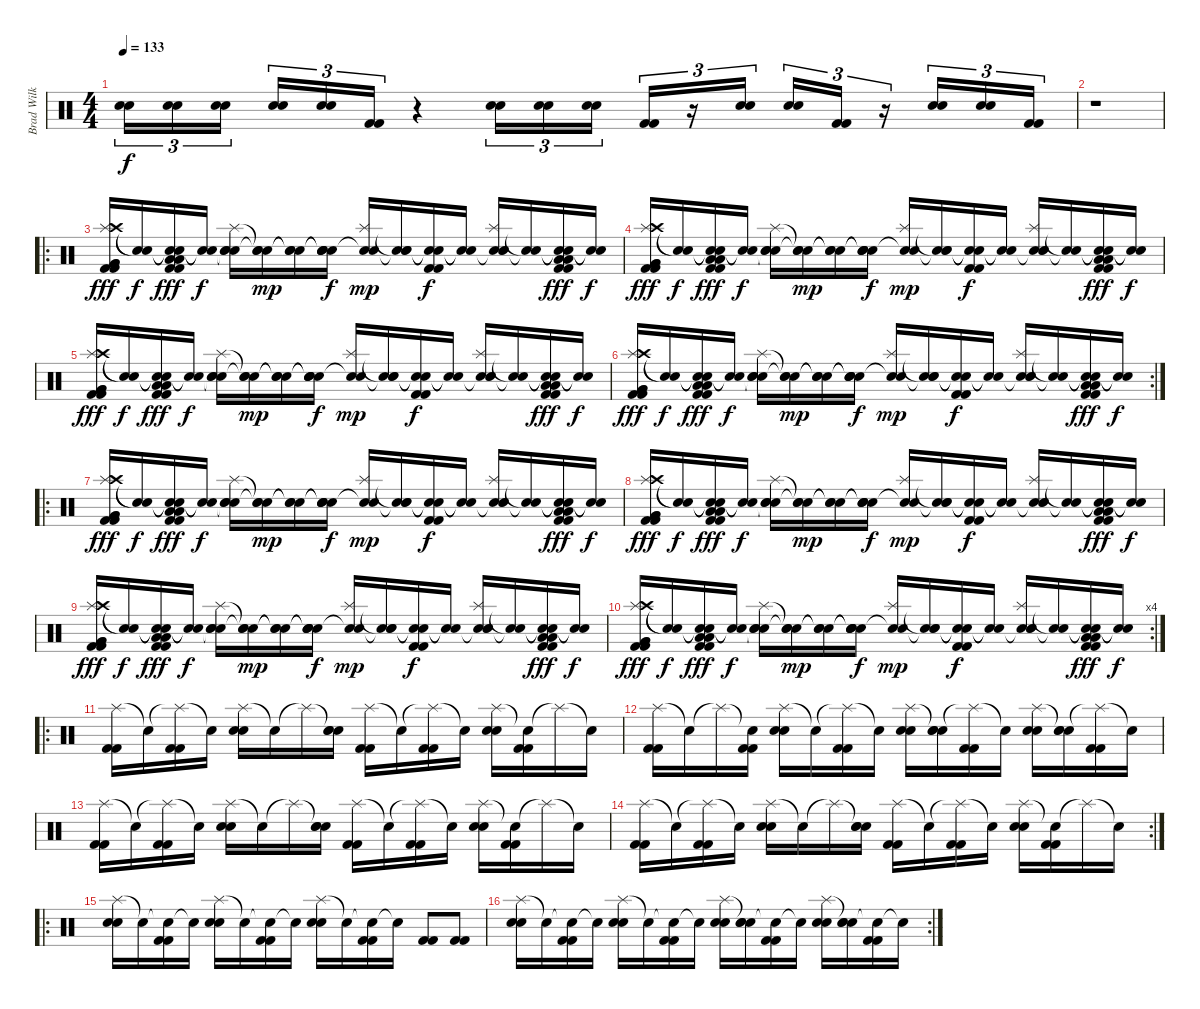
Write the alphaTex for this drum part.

\track ("Brad Wilk" "Brad Wilk") {instrument percussion}
\staff {score}
\articulation defaults
\ts (4 4)
\tempo 133
\clef neutral
\ks c
("Electric Snare (hit)" "Electric Snare (hit)").16{tu (3 2) dy f} ("Electric Snare (hit)" "Electric Snare (hit)").16{tu (3 2)} ("Electric Snare (hit)" "Electric Snare (hit)").16{tu (3 2)} ("Electric Snare (hit)" "Electric Snare (hit)").16{tu (3 2)} ("Electric Snare (hit)" "Electric Snare (hit)").16{tu (3 2)} ("Kick (hit) 2" "Kick (hit) 2").16{tu (3 2)} r.4 ("Electric Snare (hit)" "Electric Snare (hit)").16{tu (3 2)} ("Electric Snare (hit)" "Electric Snare (hit)").16{tu (3 2)} ("Electric Snare (hit)" "Electric Snare (hit)").16{tu (3 2)} ("Kick (hit) 2" "Kick (hit) 2").16{tu (3 2)} r.16{tu (3 2)} ("Electric Snare (hit)" "Electric Snare (hit)").16{tu (3 2)} ("Electric Snare (hit)" "Electric Snare (hit)").16{tu (3 2)} ("Kick (hit) 2" "Kick (hit) 2").16{tu (3 2)} r.16{tu (3 2)} ("Electric Snare (hit)" "Electric Snare (hit)").16{tu (3 2)} ("Electric Snare (hit)" "Electric Snare (hit)").16{tu (3 2)} ("Kick (hit) 2" "Kick (hit) 2").16{tu (3 2)} |
r.1 |
\ro
("Splash (hit)" "Crash high (hit)" "Kick (hit) 2" "Kick (hit) 2" "Very Low Tom (hit)" "Very Low Tom (hit)").16{dy fff} ("Snare (hit)"{t} "Snare (hit)"{t}).16{dy f} ("Snare (hit)"{t} "Snare (hit)"{t} "Kick (hit) 2" "Kick (hit) 2" "Low Floor Tom (hit)" "Low Floor Tom (hit)").16{dy fff} ("Snare (hit)"{t} "Snare (hit)"{t}).16{dy f} ("Splash (hit)" "Snare (hit)"{t} "Electric Snare (hit)" "Electric Snare (hit)").16 ("Snare (hit)"{t} "Snare (hit)"{t} "Electric Snare (hit)").16{dy mp} ("Snare (hit)"{t} "Snare (hit)"{t} "Electric Snare (hit)").16 ("Snare (hit)"{t} "Snare (hit)"{t} "Electric Snare (hit)" "Electric Snare (hit)").16{dy f} ("Splash (hit)" "Snare (hit)"{t} "Electric Snare (hit)").16{dy mp} ("Snare (hit)"{t} "Snare (hit)"{t} "Electric Snare (hit)").16 ("Snare (hit)"{t} "Snare (hit)"{t} "Kick (hit) 2" "Kick (hit) 2").16{dy f} ("Snare (hit)"{t} "Snare (hit)"{t}).16 ("Splash (hit)" "Snare (hit)"{t} "Electric Snare (hit)" "Electric Snare (hit)").16 ("Snare (hit)"{t} "Snare (hit)"{t}).16 ("Snare (hit)"{t} "Snare (hit)"{t} "Kick (hit) 2" "Kick (hit) 2" "Low Tom (hit)" "Low Tom (hit)").16{dy fff} ("Snare (hit)"{t} "Snare (hit)"{t}).16{dy f} |
("Splash (hit)" "Crash high (hit)" "Kick (hit) 2" "Kick (hit) 2" "Very Low Tom (hit)" "Very Low Tom (hit)").16{dy fff} ("Snare (hit)"{t} "Snare (hit)"{t}).16{dy f} ("Snare (hit)"{t} "Snare (hit)"{t} "Kick (hit) 2" "Kick (hit) 2" "Low Floor Tom (hit)" "Low Floor Tom (hit)").16{dy fff} ("Snare (hit)"{t} "Snare (hit)"{t}).16{dy f} ("Splash (hit)" "Snare (hit)"{t} "Electric Snare (hit)" "Electric Snare (hit)").16 ("Snare (hit)"{t} "Snare (hit)"{t} "Electric Snare (hit)").16{dy mp} ("Snare (hit)"{t} "Snare (hit)"{t} "Electric Snare (hit)").16 ("Snare (hit)"{t} "Snare (hit)"{t} "Electric Snare (hit)" "Electric Snare (hit)").16{dy f} ("Splash (hit)" "Snare (hit)"{t} "Electric Snare (hit)").16{dy mp} ("Snare (hit)"{t} "Snare (hit)"{t} "Electric Snare (hit)").16 ("Snare (hit)"{t} "Snare (hit)"{t} "Kick (hit) 2" "Kick (hit) 2").16{dy f} ("Snare (hit)"{t} "Snare (hit)"{t}).16 ("Splash (hit)" "Snare (hit)"{t} "Electric Snare (hit)" "Electric Snare (hit)").16 ("Snare (hit)"{t} "Snare (hit)"{t}).16 ("Snare (hit)"{t} "Snare (hit)"{t} "Kick (hit) 2" "Kick (hit) 2" "Low Tom (hit)" "Low Tom (hit)").16{dy fff} ("Snare (hit)"{t} "Snare (hit)"{t}).16{dy f} |
("Splash (hit)" "Crash high (hit)" "Kick (hit) 2" "Kick (hit) 2" "Very Low Tom (hit)" "Very Low Tom (hit)").16{dy fff} ("Snare (hit)"{t} "Snare (hit)"{t}).16{dy f} ("Snare (hit)"{t} "Snare (hit)"{t} "Kick (hit) 2" "Kick (hit) 2" "Low Floor Tom (hit)" "Low Floor Tom (hit)").16{dy fff} ("Snare (hit)"{t} "Snare (hit)"{t}).16{dy f} ("Splash (hit)" "Snare (hit)"{t} "Electric Snare (hit)" "Electric Snare (hit)").16 ("Snare (hit)"{t} "Snare (hit)"{t} "Electric Snare (hit)").16{dy mp} ("Snare (hit)"{t} "Snare (hit)"{t} "Electric Snare (hit)").16 ("Snare (hit)"{t} "Snare (hit)"{t} "Electric Snare (hit)" "Electric Snare (hit)").16{dy f} ("Splash (hit)" "Snare (hit)"{t} "Electric Snare (hit)").16{dy mp} ("Snare (hit)"{t} "Snare (hit)"{t} "Electric Snare (hit)").16 ("Snare (hit)"{t} "Snare (hit)"{t} "Kick (hit) 2" "Kick (hit) 2").16{dy f} ("Snare (hit)"{t} "Snare (hit)"{t}).16 ("Splash (hit)" "Snare (hit)"{t} "Electric Snare (hit)" "Electric Snare (hit)").16 ("Snare (hit)"{t} "Snare (hit)"{t}).16 ("Snare (hit)"{t} "Snare (hit)"{t} "Kick (hit) 2" "Kick (hit) 2" "Low Tom (hit)" "Low Tom (hit)").16{dy fff} ("Snare (hit)"{t} "Snare (hit)"{t}).16{dy f} |
\rc 2
("Splash (hit)" "Crash high (hit)" "Kick (hit) 2" "Kick (hit) 2" "Very Low Tom (hit)" "Very Low Tom (hit)").16{dy fff} ("Snare (hit)"{t} "Snare (hit)"{t}).16{dy f} ("Snare (hit)"{t} "Snare (hit)"{t} "Kick (hit) 2" "Kick (hit) 2" "Low Floor Tom (hit)" "Low Floor Tom (hit)").16{dy fff} ("Snare (hit)"{t} "Snare (hit)"{t}).16{dy f} ("Splash (hit)" "Snare (hit)"{t} "Electric Snare (hit)" "Electric Snare (hit)").16 ("Snare (hit)"{t} "Snare (hit)"{t} "Electric Snare (hit)").16{dy mp} ("Snare (hit)"{t} "Snare (hit)"{t} "Electric Snare (hit)").16 ("Snare (hit)"{t} "Snare (hit)"{t} "Electric Snare (hit)" "Electric Snare (hit)").16{dy f} ("Splash (hit)" "Snare (hit)"{t} "Electric Snare (hit)").16{dy mp} ("Snare (hit)"{t} "Snare (hit)"{t} "Electric Snare (hit)").16 ("Snare (hit)"{t} "Snare (hit)"{t} "Kick (hit) 2" "Kick (hit) 2").16{dy f} ("Snare (hit)"{t} "Snare (hit)"{t}).16 ("Splash (hit)" "Snare (hit)"{t} "Electric Snare (hit)" "Electric Snare (hit)").16 ("Snare (hit)"{t} "Snare (hit)"{t}).16 ("Snare (hit)"{t} "Snare (hit)"{t} "Kick (hit) 2" "Kick (hit) 2" "Low Tom (hit)" "Low Tom (hit)").16{dy fff} ("Snare (hit)"{t} "Snare (hit)"{t}).16{dy f} |
\ro
("Splash (hit)" "Crash high (hit)" "Kick (hit) 2" "Kick (hit) 2" "Very Low Tom (hit)" "Very Low Tom (hit)").16{dy fff} ("Snare (hit)"{t} "Snare (hit)"{t}).16{dy f} ("Snare (hit)"{t} "Snare (hit)"{t} "Kick (hit) 2" "Kick (hit) 2" "Low Floor Tom (hit)" "Low Floor Tom (hit)").16{dy fff} ("Snare (hit)"{t} "Snare (hit)"{t}).16{dy f} ("Splash (hit)" "Snare (hit)"{t} "Electric Snare (hit)" "Electric Snare (hit)").16 ("Snare (hit)"{t} "Snare (hit)"{t} "Electric Snare (hit)").16{dy mp} ("Snare (hit)"{t} "Snare (hit)"{t} "Electric Snare (hit)").16 ("Snare (hit)"{t} "Snare (hit)"{t} "Electric Snare (hit)" "Electric Snare (hit)").16{dy f} ("Splash (hit)" "Snare (hit)"{t} "Electric Snare (hit)").16{dy mp} ("Snare (hit)"{t} "Snare (hit)"{t} "Electric Snare (hit)").16 ("Snare (hit)"{t} "Snare (hit)"{t} "Kick (hit) 2" "Kick (hit) 2").16{dy f} ("Snare (hit)"{t} "Snare (hit)"{t}).16 ("Splash (hit)" "Snare (hit)"{t} "Electric Snare (hit)" "Electric Snare (hit)").16 ("Snare (hit)"{t} "Snare (hit)"{t}).16 ("Snare (hit)"{t} "Snare (hit)"{t} "Kick (hit) 2" "Kick (hit) 2" "Low Tom (hit)" "Low Tom (hit)").16{dy fff} ("Snare (hit)"{t} "Snare (hit)"{t}).16{dy f} |
("Splash (hit)" "Crash high (hit)" "Kick (hit) 2" "Kick (hit) 2" "Very Low Tom (hit)" "Very Low Tom (hit)").16{dy fff} ("Snare (hit)"{t} "Snare (hit)"{t}).16{dy f} ("Snare (hit)"{t} "Snare (hit)"{t} "Kick (hit) 2" "Kick (hit) 2" "Low Floor Tom (hit)" "Low Floor Tom (hit)").16{dy fff} ("Snare (hit)"{t} "Snare (hit)"{t}).16{dy f} ("Splash (hit)" "Snare (hit)"{t} "Electric Snare (hit)" "Electric Snare (hit)").16 ("Snare (hit)"{t} "Snare (hit)"{t} "Electric Snare (hit)").16{dy mp} ("Snare (hit)"{t} "Snare (hit)"{t} "Electric Snare (hit)").16 ("Snare (hit)"{t} "Snare (hit)"{t} "Electric Snare (hit)" "Electric Snare (hit)").16{dy f} ("Splash (hit)" "Snare (hit)"{t} "Electric Snare (hit)").16{dy mp} ("Snare (hit)"{t} "Snare (hit)"{t} "Electric Snare (hit)").16 ("Snare (hit)"{t} "Snare (hit)"{t} "Kick (hit) 2" "Kick (hit) 2").16{dy f} ("Snare (hit)"{t} "Snare (hit)"{t}).16 ("Splash (hit)" "Snare (hit)"{t} "Electric Snare (hit)" "Electric Snare (hit)").16 ("Snare (hit)"{t} "Snare (hit)"{t}).16 ("Snare (hit)"{t} "Snare (hit)"{t} "Kick (hit) 2" "Kick (hit) 2" "Low Tom (hit)" "Low Tom (hit)").16{dy fff} ("Snare (hit)"{t} "Snare (hit)"{t}).16{dy f} |
("Splash (hit)" "Crash high (hit)" "Kick (hit) 2" "Kick (hit) 2" "Very Low Tom (hit)" "Very Low Tom (hit)").16{dy fff} ("Snare (hit)"{t} "Snare (hit)"{t}).16{dy f} ("Snare (hit)"{t} "Snare (hit)"{t} "Kick (hit) 2" "Kick (hit) 2" "Low Floor Tom (hit)" "Low Floor Tom (hit)").16{dy fff} ("Snare (hit)"{t} "Snare (hit)"{t}).16{dy f} ("Splash (hit)" "Snare (hit)"{t} "Electric Snare (hit)" "Electric Snare (hit)").16 ("Snare (hit)"{t} "Snare (hit)"{t} "Electric Snare (hit)").16{dy mp} ("Snare (hit)"{t} "Snare (hit)"{t} "Electric Snare (hit)").16 ("Snare (hit)"{t} "Snare (hit)"{t} "Electric Snare (hit)" "Electric Snare (hit)").16{dy f} ("Splash (hit)" "Snare (hit)"{t} "Electric Snare (hit)").16{dy mp} ("Snare (hit)"{t} "Snare (hit)"{t} "Electric Snare (hit)").16 ("Snare (hit)"{t} "Snare (hit)"{t} "Kick (hit) 2" "Kick (hit) 2").16{dy f} ("Snare (hit)"{t} "Snare (hit)"{t}).16 ("Splash (hit)" "Snare (hit)"{t} "Electric Snare (hit)" "Electric Snare (hit)").16 ("Snare (hit)"{t} "Snare (hit)"{t}).16 ("Snare (hit)"{t} "Snare (hit)"{t} "Kick (hit) 2" "Kick (hit) 2" "Low Tom (hit)" "Low Tom (hit)").16{dy fff} ("Snare (hit)"{t} "Snare (hit)"{t}).16{dy f} |
\rc 4
("Splash (hit)" "Crash high (hit)" "Kick (hit) 2" "Kick (hit) 2" "Very Low Tom (hit)" "Very Low Tom (hit)").16{dy fff} ("Snare (hit)"{t} "Snare (hit)"{t}).16{dy f} ("Snare (hit)"{t} "Snare (hit)"{t} "Kick (hit) 2" "Kick (hit) 2" "Low Floor Tom (hit)" "Low Floor Tom (hit)").16{dy fff} ("Snare (hit)"{t} "Snare (hit)"{t}).16{dy f} ("Splash (hit)" "Snare (hit)"{t} "Electric Snare (hit)" "Electric Snare (hit)").16 ("Snare (hit)"{t} "Snare (hit)"{t} "Electric Snare (hit)").16{dy mp} ("Snare (hit)"{t} "Snare (hit)"{t} "Electric Snare (hit)").16 ("Snare (hit)"{t} "Snare (hit)"{t} "Electric Snare (hit)" "Electric Snare (hit)").16{dy f} ("Splash (hit)" "Snare (hit)"{t} "Electric Snare (hit)").16{dy mp} ("Snare (hit)"{t} "Snare (hit)"{t} "Electric Snare (hit)").16 ("Snare (hit)"{t} "Snare (hit)"{t} "Kick (hit) 2" "Kick (hit) 2").16{dy f} ("Snare (hit)"{t} "Snare (hit)"{t}).16 ("Splash (hit)" "Snare (hit)"{t} "Electric Snare (hit)" "Electric Snare (hit)").16 ("Snare (hit)"{t} "Snare (hit)"{t}).16 ("Snare (hit)"{t} "Snare (hit)"{t} "Kick (hit) 2" "Kick (hit) 2" "Low Tom (hit)" "Low Tom (hit)").16{dy fff} ("Snare (hit)"{t} "Snare (hit)"{t}).16{dy f} |
\ro
("Splash (hit)" "Kick (hit) 2" "Kick (hit) 2").16 "Snare (hit)"{t}.16 ("Splash (hit)"{t} "Kick (hit) 2" "Kick (hit) 2").16 "Snare (hit)"{t}.16 ("Splash (hit)" "Electric Snare (hit)" "Electric Snare (hit)").16 "Snare (hit)"{t}.16 "Splash (hit)"{t}.16 ("Snare (hit)"{t} "Electric Snare (hit)" "Electric Snare (hit)").16 ("Splash (hit)" "Kick (hit) 2" "Kick (hit) 2").16 "Snare (hit)"{t}.16 ("Splash (hit)"{t} "Kick (hit) 2" "Kick (hit) 2").16 "Snare (hit)"{t}.16 ("Splash (hit)" "Electric Snare (hit)" "Electric Snare (hit)").16 ("Snare (hit)"{t} "Kick (hit) 2" "Kick (hit) 2").16 "Splash (hit)"{t}.16 "Snare (hit)"{t}.16 |
("Splash (hit)" "Kick (hit) 2" "Kick (hit) 2").16 "Snare (hit)"{t}.16 "Splash (hit)"{t}.16 ("Snare (hit)"{t} "Kick (hit) 2" "Kick (hit) 2").16 ("Splash (hit)" "Electric Snare (hit)" "Electric Snare (hit)").16 "Snare (hit)"{t}.16 ("Splash (hit)"{t} "Kick (hit) 2" "Kick (hit) 2").16 "Snare (hit)"{t}.16 ("Splash (hit)" "Electric Snare (hit)" "Electric Snare (hit)").16 ("Snare (hit)"{t} "Electric Snare (hit)" "Electric Snare (hit)").16 ("Splash (hit)"{t} "Kick (hit) 2" "Kick (hit) 2").16 "Snare (hit)"{t}.16 ("Splash (hit)" "Electric Snare (hit)" "Electric Snare (hit)").16 ("Snare (hit)"{t} "Electric Snare (hit)" "Electric Snare (hit)").16 ("Splash (hit)"{t} "Kick (hit) 2" "Kick (hit) 2").16 "Snare (hit)"{t}.16 |
("Splash (hit)" "Kick (hit) 2" "Kick (hit) 2").16 "Snare (hit)"{t}.16 ("Splash (hit)"{t} "Kick (hit) 2" "Kick (hit) 2").16 "Snare (hit)"{t}.16 ("Splash (hit)" "Electric Snare (hit)" "Electric Snare (hit)").16 "Snare (hit)"{t}.16 "Splash (hit)"{t}.16 ("Snare (hit)"{t} "Electric Snare (hit)" "Electric Snare (hit)").16 ("Splash (hit)" "Kick (hit) 2" "Kick (hit) 2").16 "Snare (hit)"{t}.16 ("Splash (hit)"{t} "Kick (hit) 2" "Kick (hit) 2").16 "Snare (hit)"{t}.16 ("Splash (hit)" "Electric Snare (hit)" "Electric Snare (hit)").16 ("Snare (hit)"{t} "Kick (hit) 2" "Kick (hit) 2").16 "Splash (hit)"{t}.16 "Snare (hit)"{t}.16 |
\rc 2
("Splash (hit)" "Kick (hit) 2" "Kick (hit) 2").16 "Snare (hit)"{t}.16 ("Splash (hit)"{t} "Kick (hit) 2" "Kick (hit) 2").16 "Snare (hit)"{t}.16 ("Splash (hit)" "Electric Snare (hit)" "Electric Snare (hit)").16 "Snare (hit)"{t}.16 "Splash (hit)"{t}.16 ("Snare (hit)"{t} "Electric Snare (hit)" "Electric Snare (hit)").16 ("Splash (hit)" "Kick (hit) 2" "Kick (hit) 2").16 "Snare (hit)"{t}.16 ("Splash (hit)"{t} "Kick (hit) 2" "Kick (hit) 2").16 "Snare (hit)"{t}.16 ("Splash (hit)" "Electric Snare (hit)" "Electric Snare (hit)").16 ("Snare (hit)"{t} "Kick (hit) 2" "Kick (hit) 2").16 "Splash (hit)"{t}.16 "Snare (hit)"{t}.16 |
\ro
("Splash (hit)" "Electric Snare (hit)" "Electric Snare (hit)").16 "Snare (hit)"{t}.16 ("Snare (hit)"{t} "Kick (hit) 2" "Kick (hit) 2").16 "Snare (hit)"{t}.16 ("Splash (hit)" "Electric Snare (hit)" "Electric Snare (hit)").16 "Snare (hit)"{t}.16 ("Snare (hit)"{t} "Kick (hit) 2" "Kick (hit) 2").16 "Snare (hit)"{t}.16 ("Splash (hit)" "Electric Snare (hit)" "Electric Snare (hit)").16 "Snare (hit)"{t}.16 ("Snare (hit)"{t} "Kick (hit) 2" "Kick (hit) 2").16 "Snare (hit)"{t}.16 ("Kick (hit) 2" "Kick (hit) 2").8 ("Kick (hit) 2" "Kick (hit) 2").8 |
\rc 2
("Splash (hit)" "Electric Snare (hit)" "Electric Snare (hit)").16 "Snare (hit)"{t}.16 ("Snare (hit)"{t} "Kick (hit) 2" "Kick (hit) 2").16 "Snare (hit)"{t}.16 ("Splash (hit)" "Electric Snare (hit)" "Electric Snare (hit)").16 "Snare (hit)"{t}.16 ("Snare (hit)"{t} "Kick (hit) 2" "Kick (hit) 2").16 "Snare (hit)"{t}.16 ("Splash (hit)" "Electric Snare (hit)" "Electric Snare (hit)").16 ("Snare (hit)"{t} "Electric Snare (hit)" "Electric Snare (hit)").16 ("Snare (hit)"{t} "Kick (hit) 2" "Kick (hit) 2").16 "Snare (hit)"{t}.16 ("Splash (hit)" "Electric Snare (hit)" "Electric Snare (hit)").16 ("Snare (hit)"{t} "Electric Snare (hit)" "Electric Snare (hit)").16 ("Snare (hit)"{t} "Kick (hit) 2" "Kick (hit) 2").16 "Snare (hit)"{t}.16
